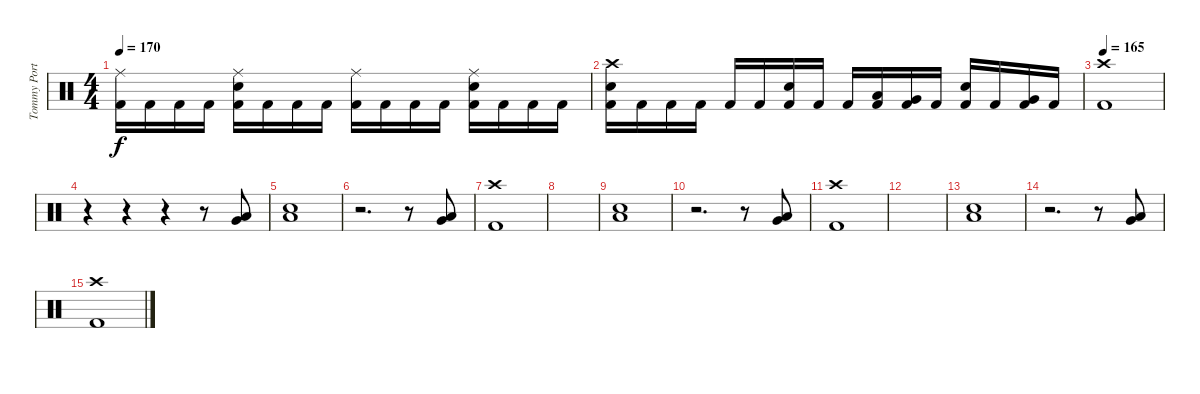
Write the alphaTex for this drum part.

\track ("Tommy Portino" "Tommy Port") {instrument percussion}
\staff {score}
\articulation defaults
\ts (4 4)
\tempo 170
\clef neutral
\ks c
("Ride (middle)" "Kick (hit) 2").16{dy f} "Kick (hit) 2".16 "Kick (hit) 2".16 "Kick (hit) 2".16 ("Ride (middle)" "Electric Snare (hit)" "Kick (hit) 2").16 "Kick (hit) 2".16 "Kick (hit) 2".16 "Kick (hit) 2".16 ("Ride (middle)" "Kick (hit) 2").16 "Kick (hit) 2".16 "Kick (hit) 2".16 "Kick (hit) 2".16 ("Ride (middle)" "Electric Snare (hit)" "Kick (hit) 2").16 "Kick (hit) 2".16 "Kick (hit) 2".16 "Kick (hit) 2".16 |
("Crash high (hit)" "Electric Snare (hit)" "Kick (hit) 2").16 "Kick (hit) 2".16 "Kick (hit) 2".16 "Kick (hit) 2".16 "Kick (hit) 2".16 "Kick (hit) 2".16 ("Electric Snare (hit)" "Kick (hit) 2").16 "Kick (hit) 2".16 "Kick (hit) 2".16 ("Low Tom (hit)" "Kick (hit) 2").16 ("Very Low Tom (hit)" "Kick (hit) 2").16 "Kick (hit) 2".16 ("Electric Snare (hit)" "Kick (hit) 2").16 "Kick (hit) 2".16 ("Very Low Tom (hit)" "Kick (hit) 2").16 "Kick (hit) 2".16 |
\tempo 165
("Crash high (hit)" "Kick (hit) 2").1 |
r.4 r.4 r.4 r.8 ("Very Low Tom (hit)" "Low Floor Tom (hit)").8 |
("Low Floor Tom (hit)" "Electric Snare (hit)").1 |
r.2{d} r.8 ("Very Low Tom (hit)" "Low Floor Tom (hit)").8 |
("Crash high (hit)" "Kick (hit) 2").1 |
|
("Low Floor Tom (hit)" "Electric Snare (hit)").1 |
r.2{d} r.8 ("Very Low Tom (hit)" "Low Floor Tom (hit)").8 |
("Crash high (hit)" "Kick (hit) 2").1 |
|
("Low Floor Tom (hit)" "Electric Snare (hit)").1 |
r.2{d} r.8 ("Very Low Tom (hit)" "Low Floor Tom (hit)").8 |
("Crash high (hit)" "Kick (hit) 2").1
